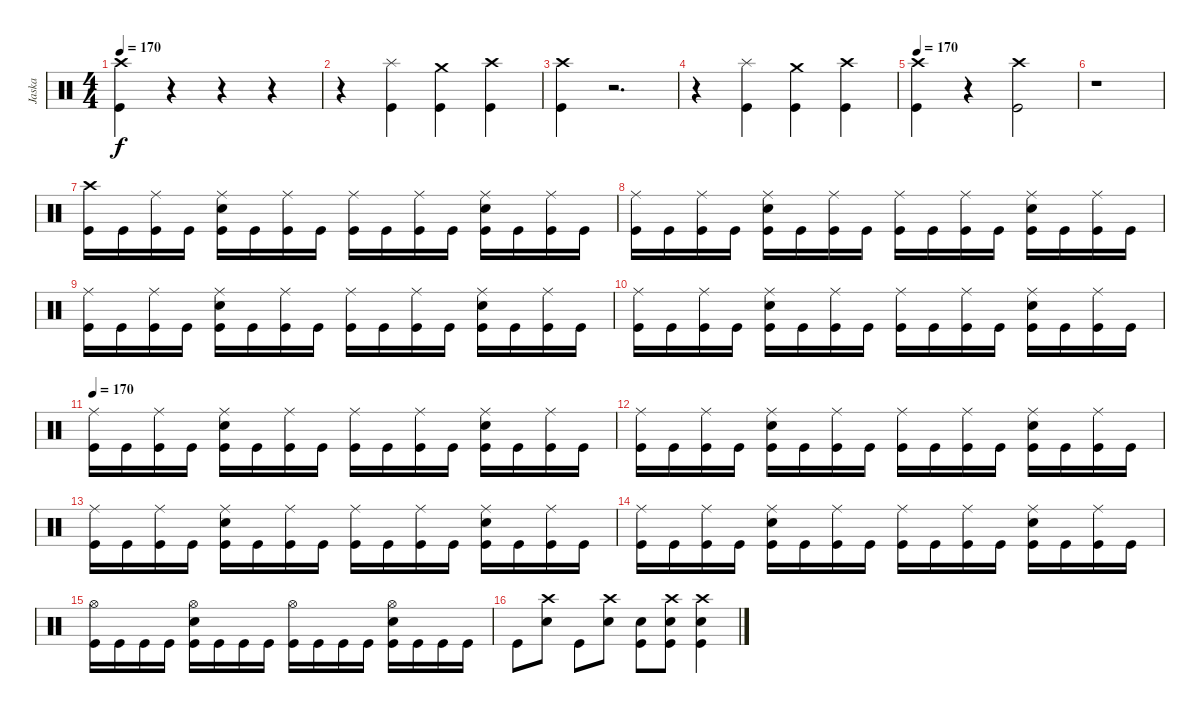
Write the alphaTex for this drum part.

\track ("Jaska" "Jaska") {instrument percussion}
\staff {score}
\articulation defaults
\ts (4 4)
\tempo 170
\clef neutral
\ks c
("Crash high (hit)" "Kick (hit)").4{dy f} r.4 r.4 r.4 |
r.4 ("Splash (hit)" "Kick (hit)").4 ("Crash medium (hit)" "Kick (hit)").4 ("Crash high (hit)" "Kick (hit)").4 |
("Crash high (hit)" "Kick (hit)").4 r.2{d} |
r.4 ("Splash (hit)" "Kick (hit)").4 ("Crash medium (hit)" "Kick (hit)").4 ("Crash high (hit)" "Kick (hit)").4 |
\tempo 170
("Crash high (hit)" "Kick (hit)").4 r.4 ("Crash high (hit)" "Kick (hit)").2 |
r.1 |
("Crash high (hit)" "Kick (hit)").16 "Kick (hit)".16 ("Ride (middle)" "Kick (hit)").16 "Kick (hit)".16 ("Ride (middle)" "Snare (hit) 2" "Kick (hit)").16 "Kick (hit)".16 ("Ride (middle)" "Kick (hit)").16 "Kick (hit)".16 ("Ride (middle)" "Kick (hit)").16 "Kick (hit)".16 ("Ride (middle)" "Kick (hit)").16 "Kick (hit)".16 ("Ride (middle)" "Snare (hit) 2" "Kick (hit)").16 "Kick (hit)".16 ("Ride (middle)" "Kick (hit)").16 "Kick (hit)".16 |
("Ride (middle)" "Kick (hit)").16 "Kick (hit)".16 ("Ride (middle)" "Kick (hit)").16 "Kick (hit)".16 ("Ride (middle)" "Snare (hit) 2" "Kick (hit)").16 "Kick (hit)".16 ("Ride (middle)" "Kick (hit)").16 "Kick (hit)".16 ("Ride (middle)" "Kick (hit)").16 "Kick (hit)".16 ("Ride (middle)" "Kick (hit)").16 "Kick (hit)".16 ("Ride (middle)" "Snare (hit) 2" "Kick (hit)").16 "Kick (hit)".16 ("Ride (middle)" "Kick (hit)").16 "Kick (hit)".16 |
("Ride (middle)" "Kick (hit)").16 "Kick (hit)".16 ("Ride (middle)" "Kick (hit)").16 "Kick (hit)".16 ("Ride (middle)" "Snare (hit) 2" "Kick (hit)").16 "Kick (hit)".16 ("Ride (middle)" "Kick (hit)").16 "Kick (hit)".16 ("Ride (middle)" "Kick (hit)").16 "Kick (hit)".16 ("Ride (middle)" "Kick (hit)").16 "Kick (hit)".16 ("Ride (middle)" "Snare (hit) 2" "Kick (hit)").16 "Kick (hit)".16 ("Ride (middle)" "Kick (hit)").16 "Kick (hit)".16 |
("Ride (middle)" "Kick (hit)").16 "Kick (hit)".16 ("Ride (middle)" "Kick (hit)").16 "Kick (hit)".16 ("Ride (middle)" "Snare (hit) 2" "Kick (hit)").16 "Kick (hit)".16 ("Ride (middle)" "Kick (hit)").16 "Kick (hit)".16 ("Ride (middle)" "Kick (hit)").16 "Kick (hit)".16 ("Ride (middle)" "Kick (hit)").16 "Kick (hit)".16 ("Ride (middle)" "Snare (hit) 2" "Kick (hit)").16 "Kick (hit)".16 ("Ride (middle)" "Kick (hit)").16 "Kick (hit)".16 |
\tempo 170
("Ride (middle)" "Kick (hit)").16 "Kick (hit)".16 ("Ride (middle)" "Kick (hit)").16 "Kick (hit)".16 ("Ride (middle)" "Snare (hit) 2" "Kick (hit)").16 "Kick (hit)".16 ("Ride (middle)" "Kick (hit)").16 "Kick (hit)".16 ("Ride (middle)" "Kick (hit)").16 "Kick (hit)".16 ("Ride (middle)" "Kick (hit)").16 "Kick (hit)".16 ("Ride (middle)" "Snare (hit) 2" "Kick (hit)").16 "Kick (hit)".16 ("Ride (middle)" "Kick (hit)").16 "Kick (hit)".16 |
("Ride (middle)" "Kick (hit)").16 "Kick (hit)".16 ("Ride (middle)" "Kick (hit)").16 "Kick (hit)".16 ("Ride (middle)" "Snare (hit) 2" "Kick (hit)").16 "Kick (hit)".16 ("Ride (middle)" "Kick (hit)").16 "Kick (hit)".16 ("Ride (middle)" "Kick (hit)").16 "Kick (hit)".16 ("Ride (middle)" "Kick (hit)").16 "Kick (hit)".16 ("Ride (middle)" "Snare (hit) 2" "Kick (hit)").16 "Kick (hit)".16 ("Ride (middle)" "Kick (hit)").16 "Kick (hit)".16 |
("Ride (middle)" "Kick (hit)").16 "Kick (hit)".16 ("Ride (middle)" "Kick (hit)").16 "Kick (hit)".16 ("Ride (middle)" "Snare (hit) 2" "Kick (hit)").16 "Kick (hit)".16 ("Ride (middle)" "Kick (hit)").16 "Kick (hit)".16 ("Ride (middle)" "Kick (hit)").16 "Kick (hit)".16 ("Ride (middle)" "Kick (hit)").16 "Kick (hit)".16 ("Ride (middle)" "Snare (hit) 2" "Kick (hit)").16 "Kick (hit)".16 ("Ride (middle)" "Kick (hit)").16 "Kick (hit)".16 |
("Ride (middle)" "Kick (hit)").16 "Kick (hit)".16 ("Ride (middle)" "Kick (hit)").16 "Kick (hit)".16 ("Ride (middle)" "Snare (hit) 2" "Kick (hit)").16 "Kick (hit)".16 ("Ride (middle)" "Kick (hit)").16 "Kick (hit)".16 ("Ride (middle)" "Kick (hit)").16 "Kick (hit)".16 ("Ride (middle)" "Kick (hit)").16 "Kick (hit)".16 ("Ride (middle)" "Snare (hit) 2" "Kick (hit)").16 "Kick (hit)".16 ("Ride (middle)" "Kick (hit)").16 "Kick (hit)".16 |
("Hi-Hat (open)" "Kick (hit)").16 "Kick (hit)".16 "Kick (hit)".16 "Kick (hit)".16 ("Hi-Hat (open)" "Snare (hit) 2" "Kick (hit)").16 "Kick (hit)".16 "Kick (hit)".16 "Kick (hit)".16 ("Hi-Hat (open)" "Kick (hit)").16 "Kick (hit)".16 "Kick (hit)".16 "Kick (hit)".16 ("Hi-Hat (open)" "Snare (hit) 2" "Kick (hit)").16 "Kick (hit)".16 "Kick (hit)".16 "Kick (hit)".16 |
"Kick (hit)".8 ("Crash high (hit)" "Snare (hit) 2").8 "Kick (hit)".8 ("Crash high (hit)" "Snare (hit) 2").8 ("Snare (hit)" "Kick (hit)").8 ("Crash high (hit)" "Snare (hit) 2" "Kick (hit)").8 ("Crash high (hit)" "Snare (hit) 2" "Kick (hit)").4
